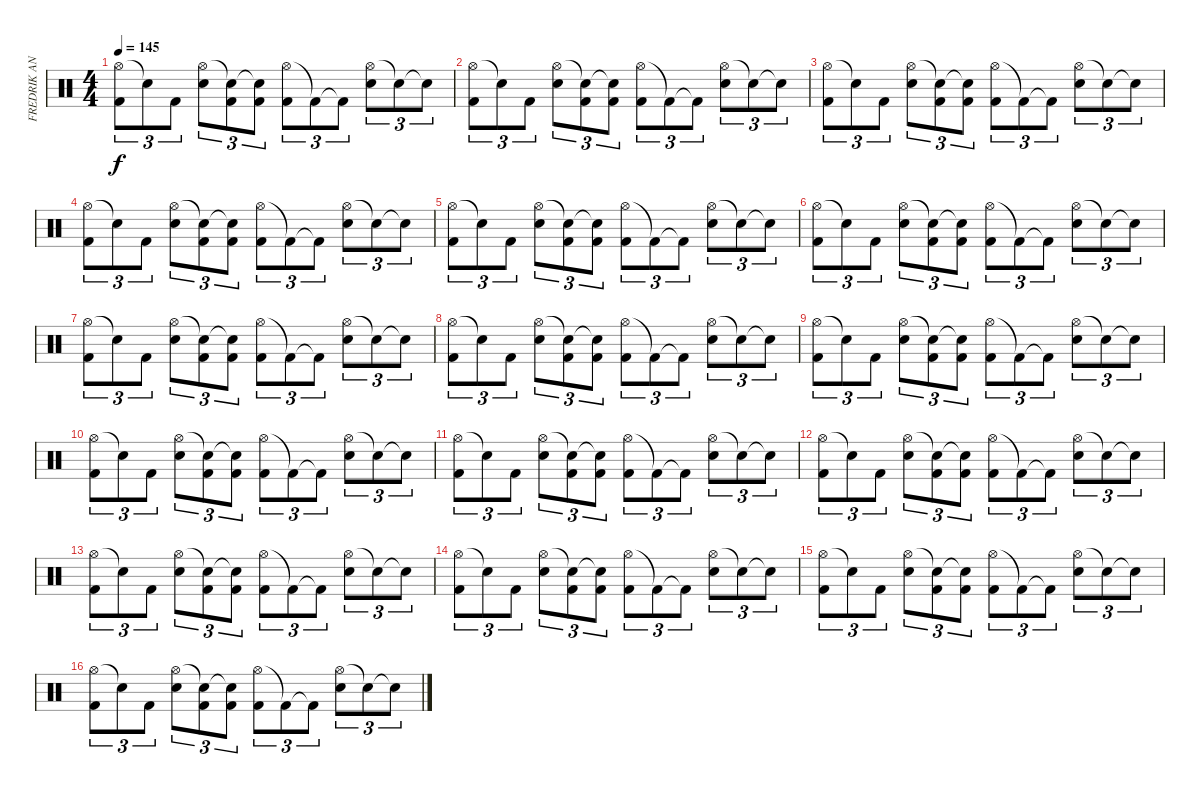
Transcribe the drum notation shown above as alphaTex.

\track ("FREDRIK ANDERSSON" "FREDRIK AN") {instrument percussion}
\staff {score}
\articulation defaults
\ts (4 4)
\tempo 145
\clef neutral
\ks c
("Hi-Hat (open)" "Kick (hit) 2").8{tu (3 2) dy f} "Snare (hit)"{t}.8{tu (3 2)} "Kick (hit) 2".8{tu (3 2)} ("Hi-Hat (open)" "Snare (hit) 2").8{tu (3 2)} ("Snare (hit)"{t} "Kick (hit) 2").8{tu (3 2)} ("Snare (hit)"{t} "Kick (hit) 2").8{tu (3 2)} ("Hi-Hat (open)" "Kick (hit) 2").8{tu (3 2)} "Kick (hit) 2"{t}.8{tu (3 2)} "Kick (hit) 2"{t}.8{tu (3 2)} ("Hi-Hat (open)" "Snare (hit) 2").8{tu (3 2)} "Snare (hit)"{t}.8{tu (3 2)} "Snare (hit)"{t}.8{tu (3 2)} |
("Hi-Hat (open)" "Kick (hit) 2").8{tu (3 2)} "Snare (hit)"{t}.8{tu (3 2)} "Kick (hit) 2".8{tu (3 2)} ("Hi-Hat (open)" "Snare (hit) 2").8{tu (3 2)} ("Snare (hit)"{t} "Kick (hit) 2").8{tu (3 2)} ("Snare (hit)"{t} "Kick (hit) 2").8{tu (3 2)} ("Hi-Hat (open)" "Kick (hit) 2").8{tu (3 2)} "Kick (hit) 2"{t}.8{tu (3 2)} "Kick (hit) 2"{t}.8{tu (3 2)} ("Hi-Hat (open)" "Snare (hit) 2").8{tu (3 2)} "Snare (hit)"{t}.8{tu (3 2)} "Snare (hit)"{t}.8{tu (3 2)} |
("Hi-Hat (open)" "Kick (hit) 2").8{tu (3 2)} "Snare (hit)"{t}.8{tu (3 2)} "Kick (hit) 2".8{tu (3 2)} ("Hi-Hat (open)" "Snare (hit) 2").8{tu (3 2)} ("Snare (hit)"{t} "Kick (hit) 2").8{tu (3 2)} ("Snare (hit)"{t} "Kick (hit) 2").8{tu (3 2)} ("Hi-Hat (open)" "Kick (hit) 2").8{tu (3 2)} "Kick (hit) 2"{t}.8{tu (3 2)} "Kick (hit) 2"{t}.8{tu (3 2)} ("Hi-Hat (open)" "Snare (hit) 2").8{tu (3 2)} "Snare (hit)"{t}.8{tu (3 2)} "Snare (hit)"{t}.8{tu (3 2)} |
("Hi-Hat (open)" "Kick (hit) 2").8{tu (3 2)} "Snare (hit)"{t}.8{tu (3 2)} "Kick (hit) 2".8{tu (3 2)} ("Hi-Hat (open)" "Snare (hit) 2").8{tu (3 2)} ("Snare (hit)"{t} "Kick (hit) 2").8{tu (3 2)} ("Snare (hit)"{t} "Kick (hit) 2").8{tu (3 2)} ("Hi-Hat (open)" "Kick (hit) 2").8{tu (3 2)} "Kick (hit) 2"{t}.8{tu (3 2)} "Kick (hit) 2"{t}.8{tu (3 2)} ("Hi-Hat (open)" "Snare (hit) 2").8{tu (3 2)} "Snare (hit)"{t}.8{tu (3 2)} "Snare (hit)"{t}.8{tu (3 2)} |
("Hi-Hat (open)" "Kick (hit) 2").8{tu (3 2)} "Snare (hit)"{t}.8{tu (3 2)} "Kick (hit) 2".8{tu (3 2)} ("Hi-Hat (open)" "Snare (hit) 2").8{tu (3 2)} ("Snare (hit)"{t} "Kick (hit) 2").8{tu (3 2)} ("Snare (hit)"{t} "Kick (hit) 2").8{tu (3 2)} ("Hi-Hat (open)" "Kick (hit) 2").8{tu (3 2)} "Kick (hit) 2"{t}.8{tu (3 2)} "Kick (hit) 2"{t}.8{tu (3 2)} ("Hi-Hat (open)" "Snare (hit) 2").8{tu (3 2)} "Snare (hit)"{t}.8{tu (3 2)} "Snare (hit)"{t}.8{tu (3 2)} |
("Hi-Hat (open)" "Kick (hit) 2").8{tu (3 2)} "Snare (hit)"{t}.8{tu (3 2)} "Kick (hit) 2".8{tu (3 2)} ("Hi-Hat (open)" "Snare (hit) 2").8{tu (3 2)} ("Snare (hit)"{t} "Kick (hit) 2").8{tu (3 2)} ("Snare (hit)"{t} "Kick (hit) 2").8{tu (3 2)} ("Hi-Hat (open)" "Kick (hit) 2").8{tu (3 2)} "Kick (hit) 2"{t}.8{tu (3 2)} "Kick (hit) 2"{t}.8{tu (3 2)} ("Hi-Hat (open)" "Snare (hit) 2").8{tu (3 2)} "Snare (hit)"{t}.8{tu (3 2)} "Snare (hit)"{t}.8{tu (3 2)} |
("Hi-Hat (open)" "Kick (hit) 2").8{tu (3 2)} "Snare (hit)"{t}.8{tu (3 2)} "Kick (hit) 2".8{tu (3 2)} ("Hi-Hat (open)" "Snare (hit) 2").8{tu (3 2)} ("Snare (hit)"{t} "Kick (hit) 2").8{tu (3 2)} ("Snare (hit)"{t} "Kick (hit) 2").8{tu (3 2)} ("Hi-Hat (open)" "Kick (hit) 2").8{tu (3 2)} "Kick (hit) 2"{t}.8{tu (3 2)} "Kick (hit) 2"{t}.8{tu (3 2)} ("Hi-Hat (open)" "Snare (hit) 2").8{tu (3 2)} "Snare (hit)"{t}.8{tu (3 2)} "Snare (hit)"{t}.8{tu (3 2)} |
("Hi-Hat (open)" "Kick (hit) 2").8{tu (3 2)} "Snare (hit)"{t}.8{tu (3 2)} "Kick (hit) 2".8{tu (3 2)} ("Hi-Hat (open)" "Snare (hit) 2").8{tu (3 2)} ("Snare (hit)"{t} "Kick (hit) 2").8{tu (3 2)} ("Snare (hit)"{t} "Kick (hit) 2").8{tu (3 2)} ("Hi-Hat (open)" "Kick (hit) 2").8{tu (3 2)} "Kick (hit) 2"{t}.8{tu (3 2)} "Kick (hit) 2"{t}.8{tu (3 2)} ("Hi-Hat (open)" "Snare (hit) 2").8{tu (3 2)} "Snare (hit)"{t}.8{tu (3 2)} "Snare (hit)"{t}.8{tu (3 2)} |
("Hi-Hat (open)" "Kick (hit) 2").8{tu (3 2)} "Snare (hit)"{t}.8{tu (3 2)} "Kick (hit) 2".8{tu (3 2)} ("Hi-Hat (open)" "Snare (hit) 2").8{tu (3 2)} ("Snare (hit)"{t} "Kick (hit) 2").8{tu (3 2)} ("Snare (hit)"{t} "Kick (hit) 2").8{tu (3 2)} ("Hi-Hat (open)" "Kick (hit) 2").8{tu (3 2)} "Kick (hit) 2"{t}.8{tu (3 2)} "Kick (hit) 2"{t}.8{tu (3 2)} ("Hi-Hat (open)" "Snare (hit) 2").8{tu (3 2)} "Snare (hit)"{t}.8{tu (3 2)} "Snare (hit)"{t}.8{tu (3 2)} |
("Hi-Hat (open)" "Kick (hit) 2").8{tu (3 2)} "Snare (hit)"{t}.8{tu (3 2)} "Kick (hit) 2".8{tu (3 2)} ("Hi-Hat (open)" "Snare (hit) 2").8{tu (3 2)} ("Snare (hit)"{t} "Kick (hit) 2").8{tu (3 2)} ("Snare (hit)"{t} "Kick (hit) 2").8{tu (3 2)} ("Hi-Hat (open)" "Kick (hit) 2").8{tu (3 2)} "Kick (hit) 2"{t}.8{tu (3 2)} "Kick (hit) 2"{t}.8{tu (3 2)} ("Hi-Hat (open)" "Snare (hit) 2").8{tu (3 2)} "Snare (hit)"{t}.8{tu (3 2)} "Snare (hit)"{t}.8{tu (3 2)} |
("Hi-Hat (open)" "Kick (hit) 2").8{tu (3 2)} "Snare (hit)"{t}.8{tu (3 2)} "Kick (hit) 2".8{tu (3 2)} ("Hi-Hat (open)" "Snare (hit) 2").8{tu (3 2)} ("Snare (hit)"{t} "Kick (hit) 2").8{tu (3 2)} ("Snare (hit)"{t} "Kick (hit) 2").8{tu (3 2)} ("Hi-Hat (open)" "Kick (hit) 2").8{tu (3 2)} "Kick (hit) 2"{t}.8{tu (3 2)} "Kick (hit) 2"{t}.8{tu (3 2)} ("Hi-Hat (open)" "Snare (hit) 2").8{tu (3 2)} "Snare (hit)"{t}.8{tu (3 2)} "Snare (hit)"{t}.8{tu (3 2)} |
("Hi-Hat (open)" "Kick (hit) 2").8{tu (3 2)} "Snare (hit)"{t}.8{tu (3 2)} "Kick (hit) 2".8{tu (3 2)} ("Hi-Hat (open)" "Snare (hit) 2").8{tu (3 2)} ("Snare (hit)"{t} "Kick (hit) 2").8{tu (3 2)} ("Snare (hit)"{t} "Kick (hit) 2").8{tu (3 2)} ("Hi-Hat (open)" "Kick (hit) 2").8{tu (3 2)} "Kick (hit) 2"{t}.8{tu (3 2)} "Kick (hit) 2"{t}.8{tu (3 2)} ("Hi-Hat (open)" "Snare (hit) 2").8{tu (3 2)} "Snare (hit)"{t}.8{tu (3 2)} "Snare (hit)"{t}.8{tu (3 2)} |
("Hi-Hat (open)" "Kick (hit) 2").8{tu (3 2)} "Snare (hit)"{t}.8{tu (3 2)} "Kick (hit) 2".8{tu (3 2)} ("Hi-Hat (open)" "Snare (hit) 2").8{tu (3 2)} ("Snare (hit)"{t} "Kick (hit) 2").8{tu (3 2)} ("Snare (hit)"{t} "Kick (hit) 2").8{tu (3 2)} ("Hi-Hat (open)" "Kick (hit) 2").8{tu (3 2)} "Kick (hit) 2"{t}.8{tu (3 2)} "Kick (hit) 2"{t}.8{tu (3 2)} ("Hi-Hat (open)" "Snare (hit) 2").8{tu (3 2)} "Snare (hit)"{t}.8{tu (3 2)} "Snare (hit)"{t}.8{tu (3 2)} |
("Hi-Hat (open)" "Kick (hit) 2").8{tu (3 2)} "Snare (hit)"{t}.8{tu (3 2)} "Kick (hit) 2".8{tu (3 2)} ("Hi-Hat (open)" "Snare (hit) 2").8{tu (3 2)} ("Snare (hit)"{t} "Kick (hit) 2").8{tu (3 2)} ("Snare (hit)"{t} "Kick (hit) 2").8{tu (3 2)} ("Hi-Hat (open)" "Kick (hit) 2").8{tu (3 2)} "Kick (hit) 2"{t}.8{tu (3 2)} "Kick (hit) 2"{t}.8{tu (3 2)} ("Hi-Hat (open)" "Snare (hit) 2").8{tu (3 2)} "Snare (hit)"{t}.8{tu (3 2)} "Snare (hit)"{t}.8{tu (3 2)} |
("Hi-Hat (open)" "Kick (hit) 2").8{tu (3 2)} "Snare (hit)"{t}.8{tu (3 2)} "Kick (hit) 2".8{tu (3 2)} ("Hi-Hat (open)" "Snare (hit) 2").8{tu (3 2)} ("Snare (hit)"{t} "Kick (hit) 2").8{tu (3 2)} ("Snare (hit)"{t} "Kick (hit) 2").8{tu (3 2)} ("Hi-Hat (open)" "Kick (hit) 2").8{tu (3 2)} "Kick (hit) 2"{t}.8{tu (3 2)} "Kick (hit) 2"{t}.8{tu (3 2)} ("Hi-Hat (open)" "Snare (hit) 2").8{tu (3 2)} "Snare (hit)"{t}.8{tu (3 2)} "Snare (hit)"{t}.8{tu (3 2)} |
("Hi-Hat (open)" "Kick (hit) 2").8{tu (3 2)} "Snare (hit)"{t}.8{tu (3 2)} "Kick (hit) 2".8{tu (3 2)} ("Hi-Hat (open)" "Snare (hit) 2").8{tu (3 2)} ("Snare (hit)"{t} "Kick (hit) 2").8{tu (3 2)} ("Snare (hit)"{t} "Kick (hit) 2").8{tu (3 2)} ("Hi-Hat (open)" "Kick (hit) 2").8{tu (3 2)} "Kick (hit) 2"{t}.8{tu (3 2)} "Kick (hit) 2"{t}.8{tu (3 2)} ("Hi-Hat (open)" "Snare (hit) 2").8{tu (3 2)} "Snare (hit)"{t}.8{tu (3 2)} "Snare (hit)"{t}.8{tu (3 2)}
